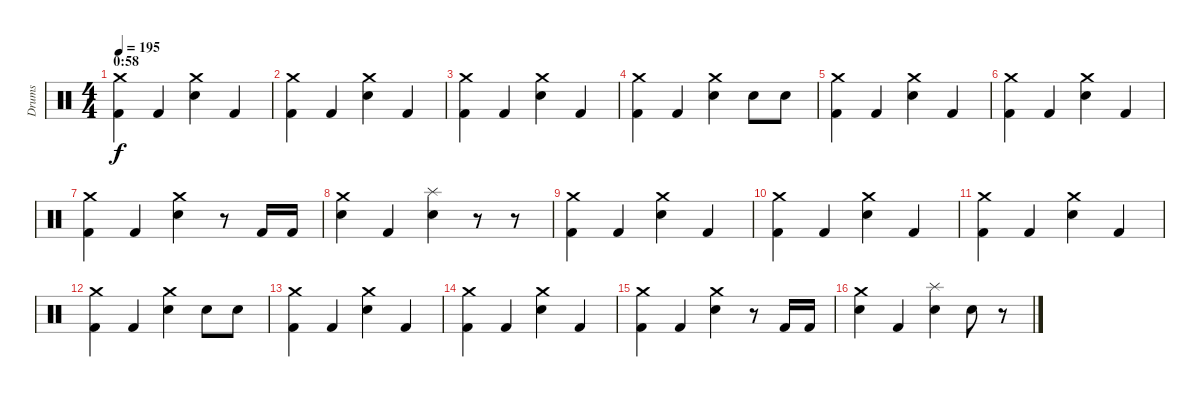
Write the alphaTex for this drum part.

\track ("Drums" "Drums") {instrument percussion}
\staff {score}
\articulation defaults
\ts (4 4)
\section ("" "0:58")
\tempo 195
\clef neutral
\ks c
("Crash medium (hit)" "Kick (hit) 2").4{dy f} "Kick (hit) 2".4 ("Crash medium (hit)" "Electric Snare (hit)").4 "Kick (hit) 2".4 |
("Crash medium (hit)" "Kick (hit) 2").4 "Kick (hit) 2".4 ("Crash medium (hit)" "Electric Snare (hit)").4 "Kick (hit) 2".4 |
("Crash medium (hit)" "Kick (hit) 2").4 "Kick (hit) 2".4 ("Crash medium (hit)" "Electric Snare (hit)").4 "Kick (hit) 2".4 |
("Crash medium (hit)" "Kick (hit) 2").4 "Kick (hit) 2".4 ("Crash medium (hit)" "Electric Snare (hit)").4 "Electric Snare (hit)".8 "Electric Snare (hit)".8 |
("Crash medium (hit)" "Kick (hit) 2").4 "Kick (hit) 2".4 ("Crash medium (hit)" "Electric Snare (hit)").4 "Kick (hit) 2".4 |
("Crash medium (hit)" "Kick (hit) 2").4 "Kick (hit) 2".4 ("Crash medium (hit)" "Electric Snare (hit)").4 "Kick (hit) 2".4 |
("Crash medium (hit)" "Kick (hit) 2").4 "Kick (hit) 2".4 ("Crash medium (hit)" "Electric Snare (hit)").4 r.8 "Kick (hit) 2".16 "Kick (hit) 2".16 |
("Crash medium (hit)" "Electric Snare (hit)").4 "Kick (hit) 2".4 ("Splash (hit)" "Electric Snare (hit)").4 r.8 r.8 |
("Crash medium (hit)" "Kick (hit) 2").4 "Kick (hit) 2".4 ("Crash medium (hit)" "Electric Snare (hit)").4 "Kick (hit) 2".4 |
("Crash medium (hit)" "Kick (hit) 2").4 "Kick (hit) 2".4 ("Crash medium (hit)" "Electric Snare (hit)").4 "Kick (hit) 2".4 |
("Crash medium (hit)" "Kick (hit) 2").4 "Kick (hit) 2".4 ("Crash medium (hit)" "Electric Snare (hit)").4 "Kick (hit) 2".4 |
("Crash medium (hit)" "Kick (hit) 2").4 "Kick (hit) 2".4 ("Crash medium (hit)" "Electric Snare (hit)").4 "Electric Snare (hit)".8 "Electric Snare (hit)".8 |
("Crash medium (hit)" "Kick (hit) 2").4 "Kick (hit) 2".4 ("Crash medium (hit)" "Electric Snare (hit)").4 "Kick (hit) 2".4 |
("Crash medium (hit)" "Kick (hit) 2").4 "Kick (hit) 2".4 ("Crash medium (hit)" "Electric Snare (hit)").4 "Kick (hit) 2".4 |
("Crash medium (hit)" "Kick (hit) 2").4 "Kick (hit) 2".4 ("Crash medium (hit)" "Electric Snare (hit)").4 r.8 "Kick (hit) 2".16 "Kick (hit) 2".16 |
("Crash medium (hit)" "Electric Snare (hit)").4 "Kick (hit) 2".4 ("Splash (hit)" "Electric Snare (hit)").4 "Electric Snare (hit)".8 r.8
